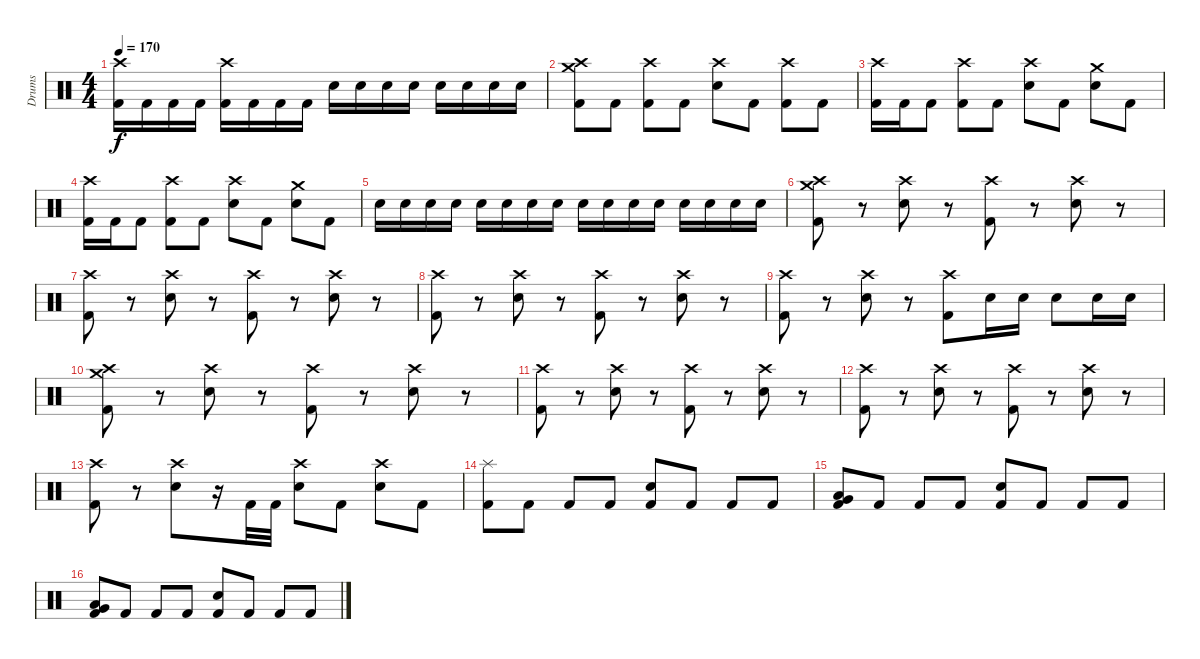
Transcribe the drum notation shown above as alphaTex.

\track ("Drums" "Drums") {instrument percussion}
\staff {score}
\articulation defaults
\ts (4 4)
\tempo 170
\clef neutral
\ks c
("Crash high (hit)" "Kick (hit) 2").16{dy f} "Kick (hit) 2".16 "Kick (hit) 2".16 "Kick (hit) 2".16 ("Crash high (hit)" "Kick (hit) 2").16 "Kick (hit) 2".16 "Kick (hit) 2".16 "Kick (hit) 2".16 "Snare (hit) 2".16 "Snare (hit) 2".16 "Snare (hit) 2".16 "Snare (hit) 2".16 "Snare (hit) 2".16 "Snare (hit) 2".16 "Snare (hit) 2".16 "Snare (hit) 2".16 |
("Crash medium (hit)" "Crash high (hit)" "Kick (hit) 2").8 "Kick (hit) 2".8 ("Crash high (hit)" "Kick (hit) 2").8 "Kick (hit) 2".8 ("Crash high (hit)" "Snare (hit) 2").8 "Kick (hit) 2".8 ("Crash high (hit)" "Kick (hit) 2").8 "Kick (hit) 2".8 |
("Crash high (hit)" "Kick (hit) 2").16 "Kick (hit) 2".16 "Kick (hit) 2".8 ("Crash high (hit)" "Kick (hit) 2").8 "Kick (hit) 2".8 ("Crash high (hit)" "Snare (hit) 2").8 "Kick (hit) 2".8 ("Crash medium (hit)" "Snare (hit) 2").8 "Kick (hit) 2".8 |
("Crash high (hit)" "Kick (hit) 2").16 "Kick (hit) 2".16 "Kick (hit) 2".8 ("Crash high (hit)" "Kick (hit) 2").8 "Kick (hit) 2".8 ("Crash high (hit)" "Snare (hit) 2").8 "Kick (hit) 2".8 ("Crash medium (hit)" "Snare (hit) 2").8 "Kick (hit) 2".8 |
"Snare (hit) 2".16 "Snare (hit) 2".16 "Snare (hit) 2".16 "Snare (hit) 2".16 "Snare (hit) 2".16 "Snare (hit) 2".16 "Snare (hit) 2".16 "Snare (hit) 2".16 "Snare (hit) 2".16 "Snare (hit) 2".16 "Snare (hit) 2".16 "Snare (hit) 2".16 "Snare (hit) 2".16 "Snare (hit) 2".16 "Snare (hit) 2".16 "Snare (hit) 2".16 |
("Crash medium (hit)" "Crash high (hit)" "Kick (hit) 2").8 r.8 ("Crash high (hit)" "Snare (hit) 2").8 r.8 ("Crash high (hit)" "Kick (hit) 2").8 r.8 ("Crash high (hit)" "Snare (hit) 2").8 r.8 |
("Crash high (hit)" "Kick (hit) 2").8 r.8 ("Crash high (hit)" "Snare (hit) 2").8 r.8 ("Crash high (hit)" "Kick (hit) 2").8 r.8 ("Crash high (hit)" "Snare (hit) 2").8 r.8 |
("Crash high (hit)" "Kick (hit) 2").8 r.8 ("Crash high (hit)" "Snare (hit) 2").8 r.8 ("Crash high (hit)" "Kick (hit) 2").8 r.8 ("Crash high (hit)" "Snare (hit) 2").8 r.8 |
("Crash high (hit)" "Kick (hit) 2").8 r.8 ("Crash high (hit)" "Snare (hit) 2").8 r.8 ("Crash high (hit)" "Kick (hit) 2").8 "Snare (hit) 2".16 "Snare (hit) 2".16 "Snare (hit) 2".8 "Snare (hit) 2".16 "Snare (hit) 2".16 |
("Crash medium (hit)" "Crash high (hit)" "Kick (hit) 2").8 r.8 ("Crash high (hit)" "Snare (hit) 2").8 r.8 ("Crash high (hit)" "Kick (hit) 2").8 r.8 ("Crash high (hit)" "Snare (hit) 2").8 r.8 |
("Crash high (hit)" "Kick (hit) 2").8 r.8 ("Crash high (hit)" "Snare (hit) 2").8 r.8 ("Crash high (hit)" "Kick (hit) 2").8 r.8 ("Crash high (hit)" "Snare (hit) 2").8 r.8 |
("Crash high (hit)" "Kick (hit) 2").8 r.8 ("Crash high (hit)" "Snare (hit) 2").8 r.8 ("Crash high (hit)" "Kick (hit) 2").8 r.8 ("Crash high (hit)" "Snare (hit) 2").8 r.8 |
("Crash high (hit)" "Kick (hit) 2").8 r.8 ("Crash high (hit)" "Snare (hit) 2").8 r.16 "Kick (hit) 2".32 "Kick (hit) 2".32 ("Crash high (hit)" "Snare (hit) 2").8 "Kick (hit) 2".8 ("Crash high (hit)" "Snare (hit) 2").8 "Kick (hit) 2".8 |
("Splash (hit)" "Kick (hit) 2").8 "Kick (hit) 2".8 "Kick (hit) 2".8 "Kick (hit) 2".8 ("Snare (hit) 2" "Kick (hit) 2").8 "Kick (hit) 2".8 "Kick (hit) 2".8 "Kick (hit) 2".8 |
("Very Low Tom (hit)" "Low Tom (hit)" "Kick (hit) 2").8 "Kick (hit) 2".8 "Kick (hit) 2".8 "Kick (hit) 2".8 ("Snare (hit) 2" "Kick (hit) 2").8 "Kick (hit) 2".8 "Kick (hit) 2".8 "Kick (hit) 2".8 |
("Very Low Tom (hit)" "Low Tom (hit)" "Kick (hit) 2").8 "Kick (hit) 2".8 "Kick (hit) 2".8 "Kick (hit) 2".8 ("Snare (hit) 2" "Kick (hit) 2").8 "Kick (hit) 2".8 "Kick (hit) 2".8 "Kick (hit) 2".8
